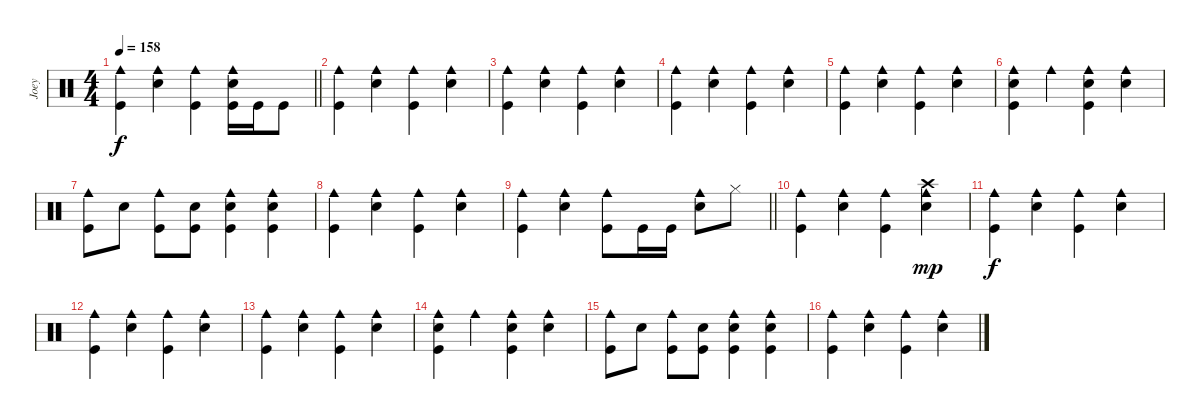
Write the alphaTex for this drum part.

\track ("Joey" "Joey") {instrument percussion}
\staff {score}
\articulation defaults
\ts (4 4)
\tempo 158
\clef neutral
\barLineRight lightlight
\ks c
("Cowbell medium (hit)" "Kick (hit)").4{dy f} ("Cowbell medium (hit)" "Electric Snare (hit)").4 ("Cowbell medium (hit)" "Kick (hit)").4 ("Cowbell medium (hit)" "Electric Snare (hit)" "Kick (hit)").16 "Kick (hit)".16 "Kick (hit)".8 |
("Cowbell medium (hit)" "Kick (hit)").4 ("Cowbell medium (hit)" "Electric Snare (hit)").4 ("Cowbell medium (hit)" "Kick (hit)").4 ("Cowbell medium (hit)" "Electric Snare (hit)").4 |
("Cowbell medium (hit)" "Kick (hit)").4 ("Cowbell medium (hit)" "Electric Snare (hit)").4 ("Cowbell medium (hit)" "Kick (hit)").4 ("Cowbell medium (hit)" "Electric Snare (hit)").4 |
("Cowbell medium (hit)" "Kick (hit)").4 ("Cowbell medium (hit)" "Electric Snare (hit)").4 ("Cowbell medium (hit)" "Kick (hit)").4 ("Cowbell medium (hit)" "Electric Snare (hit)").4 |
("Cowbell medium (hit)" "Kick (hit)").4 ("Cowbell medium (hit)" "Electric Snare (hit)").4 ("Cowbell medium (hit)" "Kick (hit)").4 ("Cowbell medium (hit)" "Electric Snare (hit)").4 |
("Cowbell medium (hit)" "Electric Snare (hit)" "Kick (hit)").4 "Cowbell medium (hit)".4 ("Cowbell medium (hit)" "Electric Snare (hit)" "Kick (hit)").4 ("Cowbell medium (hit)" "Electric Snare (hit)").4 |
("Cowbell medium (hit)" "Kick (hit)").8 "Electric Snare (hit)".8 ("Cowbell medium (hit)" "Kick (hit)").8 ("Electric Snare (hit)" "Kick (hit)").8 ("Cowbell medium (hit)" "Kick (hit)" "Electric Snare (hit)").4 ("Cowbell medium (hit)" "Kick (hit)" "Electric Snare (hit)").4 |
("Cowbell medium (hit)" "Kick (hit)").4 ("Cowbell medium (hit)" "Electric Snare (hit)").4 ("Cowbell medium (hit)" "Kick (hit)").4 ("Cowbell medium (hit)" "Electric Snare (hit)").4 |
\barLineRight lightlight
("Cowbell medium (hit)" "Kick (hit)").4 ("Cowbell medium (hit)" "Electric Snare (hit)").4 ("Cowbell medium (hit)" "Kick (hit)").8 "Kick (hit)".16 "Kick (hit)".16 ("Cowbell medium (hit)" "Electric Snare (hit)").8 "Hi-Hat (closed)".8 |
("Cowbell medium (hit)" "Kick (hit)").4 ("Cowbell medium (hit)" "Electric Snare (hit)").4 ("Cowbell medium (hit)" "Kick (hit)").4 ("Cowbell medium (hit)" "Crash high (hit)" "Electric Snare (hit)").4{dy mp} |
("Cowbell medium (hit)" "Kick (hit)").4{dy f} ("Cowbell medium (hit)" "Electric Snare (hit)").4 ("Cowbell medium (hit)" "Kick (hit)").4 ("Cowbell medium (hit)" "Electric Snare (hit)").4 |
("Cowbell medium (hit)" "Kick (hit)").4 ("Cowbell medium (hit)" "Electric Snare (hit)").4 ("Cowbell medium (hit)" "Kick (hit)").4 ("Cowbell medium (hit)" "Electric Snare (hit)").4 |
("Cowbell medium (hit)" "Kick (hit)").4 ("Cowbell medium (hit)" "Electric Snare (hit)").4 ("Cowbell medium (hit)" "Kick (hit)").4 ("Cowbell medium (hit)" "Electric Snare (hit)").4 |
("Cowbell medium (hit)" "Electric Snare (hit)" "Kick (hit)").4 "Cowbell medium (hit)".4 ("Cowbell medium (hit)" "Electric Snare (hit)" "Kick (hit)").4 ("Cowbell medium (hit)" "Electric Snare (hit)").4 |
("Cowbell medium (hit)" "Kick (hit)").8 "Electric Snare (hit)".8 ("Cowbell medium (hit)" "Kick (hit)").8 ("Electric Snare (hit)" "Kick (hit)").8 ("Cowbell medium (hit)" "Kick (hit)" "Electric Snare (hit)").4 ("Cowbell medium (hit)" "Kick (hit)" "Electric Snare (hit)").4 |
("Cowbell medium (hit)" "Kick (hit)").4 ("Cowbell medium (hit)" "Electric Snare (hit)").4 ("Cowbell medium (hit)" "Kick (hit)").4 ("Cowbell medium (hit)" "Electric Snare (hit)").4
